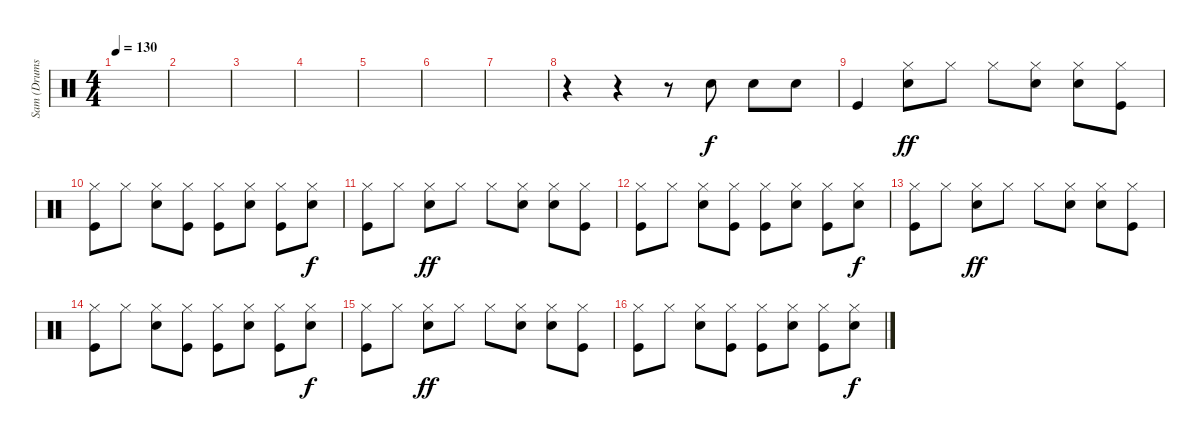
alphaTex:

\track ("Sam (Drums)" "Sam (Drums") {instrument percussion}
\staff {score}
\articulation defaults
\ts (4 4)
\tempo 130
\clef neutral
\ks c
|
|
|
|
|
|
|
r.4 r.4 r.8 "Snare (hit) 2".8 "Snare (hit) 2".8 "Snare (hit) 2".8 |
"Kick (hit)".4 ("Hi-Hat (closed)" "Snare (hit) 2").8{dy ff} "Hi-Hat (closed)".8 "Hi-Hat (closed)".8 ("Hi-Hat (closed)" "Snare (hit) 2").8 ("Hi-Hat (closed)" "Snare (hit) 2").8 ("Hi-Hat (closed)" "Kick (hit)").8 |
("Hi-Hat (closed)" "Kick (hit)").8 "Hi-Hat (closed)".8 ("Hi-Hat (closed)" "Snare (hit) 2").8 ("Hi-Hat (closed)" "Kick (hit)").8 ("Hi-Hat (closed)" "Kick (hit)").8 ("Hi-Hat (closed)" "Snare (hit) 2").8 ("Hi-Hat (closed)" "Kick (hit)").8 ("Hi-Hat (closed)" "Snare (hit) 2").8{dy f} |
("Hi-Hat (closed)" "Kick (hit)").8 "Hi-Hat (closed)".8 ("Hi-Hat (closed)" "Snare (hit) 2").8{dy ff} "Hi-Hat (closed)".8 "Hi-Hat (closed)".8 ("Hi-Hat (closed)" "Snare (hit) 2").8 ("Hi-Hat (closed)" "Snare (hit) 2").8 ("Hi-Hat (closed)" "Kick (hit)").8 |
("Hi-Hat (closed)" "Kick (hit)").8 "Hi-Hat (closed)".8 ("Hi-Hat (closed)" "Snare (hit) 2").8 ("Hi-Hat (closed)" "Kick (hit)").8 ("Hi-Hat (closed)" "Kick (hit)").8 ("Hi-Hat (closed)" "Snare (hit) 2").8 ("Hi-Hat (closed)" "Kick (hit)").8 ("Hi-Hat (closed)" "Snare (hit) 2").8{dy f} |
("Hi-Hat (closed)" "Kick (hit)").8 "Hi-Hat (closed)".8 ("Hi-Hat (closed)" "Snare (hit) 2").8{dy ff} "Hi-Hat (closed)".8 "Hi-Hat (closed)".8 ("Hi-Hat (closed)" "Snare (hit) 2").8 ("Hi-Hat (closed)" "Snare (hit) 2").8 ("Hi-Hat (closed)" "Kick (hit)").8 |
("Hi-Hat (closed)" "Kick (hit)").8 "Hi-Hat (closed)".8 ("Hi-Hat (closed)" "Snare (hit) 2").8 ("Hi-Hat (closed)" "Kick (hit)").8 ("Hi-Hat (closed)" "Kick (hit)").8 ("Hi-Hat (closed)" "Snare (hit) 2").8 ("Hi-Hat (closed)" "Kick (hit)").8 ("Hi-Hat (closed)" "Snare (hit) 2").8{dy f} |
("Hi-Hat (closed)" "Kick (hit)").8 "Hi-Hat (closed)".8 ("Hi-Hat (closed)" "Snare (hit) 2").8{dy ff} "Hi-Hat (closed)".8 "Hi-Hat (closed)".8 ("Hi-Hat (closed)" "Snare (hit) 2").8 ("Hi-Hat (closed)" "Snare (hit) 2").8 ("Hi-Hat (closed)" "Kick (hit)").8 |
("Hi-Hat (closed)" "Kick (hit)").8 "Hi-Hat (closed)".8 ("Hi-Hat (closed)" "Snare (hit) 2").8 ("Hi-Hat (closed)" "Kick (hit)").8 ("Hi-Hat (closed)" "Kick (hit)").8 ("Hi-Hat (closed)" "Snare (hit) 2").8 ("Hi-Hat (closed)" "Kick (hit)").8 ("Hi-Hat (closed)" "Snare (hit) 2").8{dy f}
